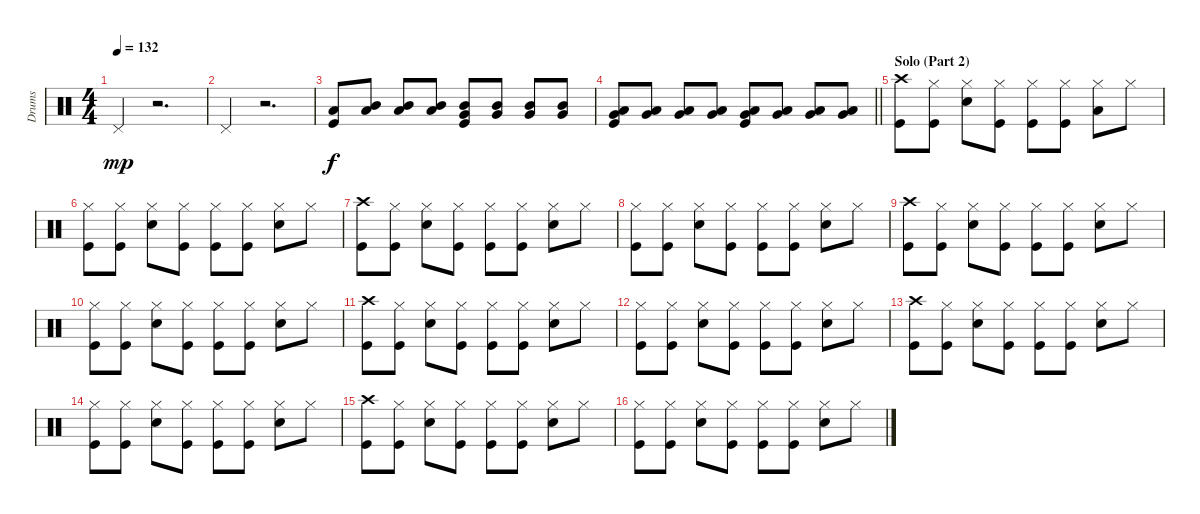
\track ("Drums" "Drums") {instrument percussion}
\staff {score}
\articulation defaults
\ts (4 4)
\tempo 132
\clef neutral
\ks c "Pedal Hi-Hat (hit)".4{dy mp}
r.2{d} |
"Pedal Hi-Hat (hit)".4 r.2{d} |
("Low Tom (hit)" "Kick (hit)").8{dy f} ("Low Tom (hit)" "Mid Tom (hit)").8 ("Mid Tom (hit)" "Low Tom (hit)").8 ("Low Tom (hit)" "Mid Tom (hit)").8 ("Very Low Tom (hit)" "Mid Tom (hit)" "Kick (hit)").8 ("Very Low Tom (hit)" "Mid Tom (hit)").8 ("Very Low Tom (hit)" "Mid Tom (hit)").8 ("Very Low Tom (hit)" "Mid Tom (hit)").8 |
\barLineRight lightlight
("Very Low Tom (hit)" "Kick (hit)" "Low Tom (hit)").8 ("Low Tom (hit)" "Very Low Tom (hit)").8 ("Very Low Tom (hit)" "Low Tom (hit)").8 ("Very Low Tom (hit)" "Low Tom (hit)").8 ("Kick (hit)" "Low Floor Tom (hit)" "Very Low Tom (hit)").8 ("Low Floor Tom (hit)" "Very Low Tom (hit)").8 ("Low Floor Tom (hit)" "Very Low Tom (hit)").8 ("Low Floor Tom (hit)" "Very Low Tom (hit)").8 |
\section ("" "Solo (Part 2)")
("Kick (hit)" "Crash high (hit)").8 ("Kick (hit)" "Hi-Hat (closed)").8 ("Electric Snare (hit)" "Hi-Hat (closed)").8 ("Kick (hit)" "Hi-Hat (closed)").8 ("Kick (hit)" "Hi-Hat (closed)").8 ("Kick (hit)" "Hi-Hat (closed)").8 ("Low Tom (hit)" "Hi-Hat (closed)").8 "Hi-Hat (closed)".8 |
("Kick (hit)" "Hi-Hat (closed)").8 ("Kick (hit)" "Hi-Hat (closed)").8 ("Hi-Hat (closed)" "Snare (hit) 2").8 ("Kick (hit)" "Hi-Hat (closed)").8 ("Kick (hit)" "Hi-Hat (closed)").8 ("Hi-Hat (closed)" "Kick (hit)").8 ("Snare (hit) 2" "Hi-Hat (closed)").8 "Hi-Hat (closed)".8 |
("Crash high (hit)" "Kick (hit)").8 ("Hi-Hat (closed)" "Kick (hit)").8 ("Hi-Hat (closed)" "Snare (hit) 2").8 ("Hi-Hat (closed)" "Kick (hit)").8 ("Hi-Hat (closed)" "Kick (hit)").8 ("Kick (hit)" "Hi-Hat (closed)").8 ("Hi-Hat (closed)" "Snare (hit) 2").8 "Hi-Hat (closed)".8 |
("Kick (hit)" "Hi-Hat (closed)").8 ("Kick (hit)" "Hi-Hat (closed)").8 ("Hi-Hat (closed)" "Snare (hit) 2").8 ("Hi-Hat (closed)" "Kick (hit)").8 ("Kick (hit)" "Hi-Hat (closed)").8 ("Hi-Hat (closed)" "Kick (hit)").8 ("Snare (hit) 2" "Hi-Hat (closed)").8 "Hi-Hat (closed)".8 |
("Crash high (hit)" "Kick (hit)").8 ("Hi-Hat (closed)" "Kick (hit)").8 ("Hi-Hat (closed)" "Snare (hit) 2").8 ("Hi-Hat (closed)" "Kick (hit)").8 ("Hi-Hat (closed)" "Kick (hit)").8 ("Kick (hit)" "Hi-Hat (closed)").8 ("Hi-Hat (closed)" "Snare (hit) 2").8 "Hi-Hat (closed)".8 |
("Kick (hit)" "Hi-Hat (closed)").8 ("Kick (hit)" "Hi-Hat (closed)").8 ("Hi-Hat (closed)" "Snare (hit) 2").8 ("Hi-Hat (closed)" "Kick (hit)").8 ("Hi-Hat (closed)" "Kick (hit)").8 ("Hi-Hat (closed)" "Kick (hit)").8 ("Snare (hit) 2" "Hi-Hat (closed)").8 "Hi-Hat (closed)".8 |
("Crash high (hit)" "Kick (hit)").8 ("Hi-Hat (closed)" "Kick (hit)").8 ("Hi-Hat (closed)" "Snare (hit) 2").8 ("Hi-Hat (closed)" "Kick (hit)").8 ("Hi-Hat (closed)" "Kick (hit)").8 ("Kick (hit)" "Hi-Hat (closed)").8 ("Hi-Hat (closed)" "Snare (hit) 2").8 "Hi-Hat (closed)".8 |
("Kick (hit)" "Hi-Hat (closed)").8 ("Kick (hit)" "Hi-Hat (closed)").8 ("Hi-Hat (closed)" "Snare (hit) 2").8 ("Hi-Hat (closed)" "Kick (hit)").8 ("Kick (hit)" "Hi-Hat (closed)").8 ("Hi-Hat (closed)" "Kick (hit)").8 ("Snare (hit) 2" "Hi-Hat (closed)").8 "Hi-Hat (closed)".8 |
("Crash high (hit)" "Kick (hit)").8 ("Hi-Hat (closed)" "Kick (hit)").8 ("Hi-Hat (closed)" "Snare (hit) 2").8 ("Hi-Hat (closed)" "Kick (hit)").8 ("Hi-Hat (closed)" "Kick (hit)").8 ("Kick (hit)" "Hi-Hat (closed)").8 ("Hi-Hat (closed)" "Snare (hit) 2").8 "Hi-Hat (closed)".8 |
("Kick (hit)" "Hi-Hat (closed)").8 ("Kick (hit)" "Hi-Hat (closed)").8 ("Hi-Hat (closed)" "Snare (hit) 2").8 ("Hi-Hat (closed)" "Kick (hit)").8 ("Kick (hit)" "Hi-Hat (closed)").8 ("Hi-Hat (closed)" "Kick (hit)").8 ("Snare (hit) 2" "Hi-Hat (closed)").8 "Hi-Hat (closed)".8 |
("Crash high (hit)" "Kick (hit)").8 ("Hi-Hat (closed)" "Kick (hit)").8 ("Hi-Hat (closed)" "Snare (hit) 2").8 ("Hi-Hat (closed)" "Kick (hit)").8 ("Hi-Hat (closed)" "Kick (hit)").8 ("Kick (hit)" "Hi-Hat (closed)").8 ("Hi-Hat (closed)" "Snare (hit) 2").8 "Hi-Hat (closed)".8 |
("Kick (hit)" "Hi-Hat (closed)").8 ("Kick (hit)" "Hi-Hat (closed)").8 ("Hi-Hat (closed)" "Snare (hit) 2").8 ("Hi-Hat (closed)" "Kick (hit)").8 ("Kick (hit)" "Hi-Hat (closed)").8 ("Hi-Hat (closed)" "Kick (hit)").8 ("Snare (hit) 2" "Hi-Hat (closed)").8 "Hi-Hat (closed)".8
